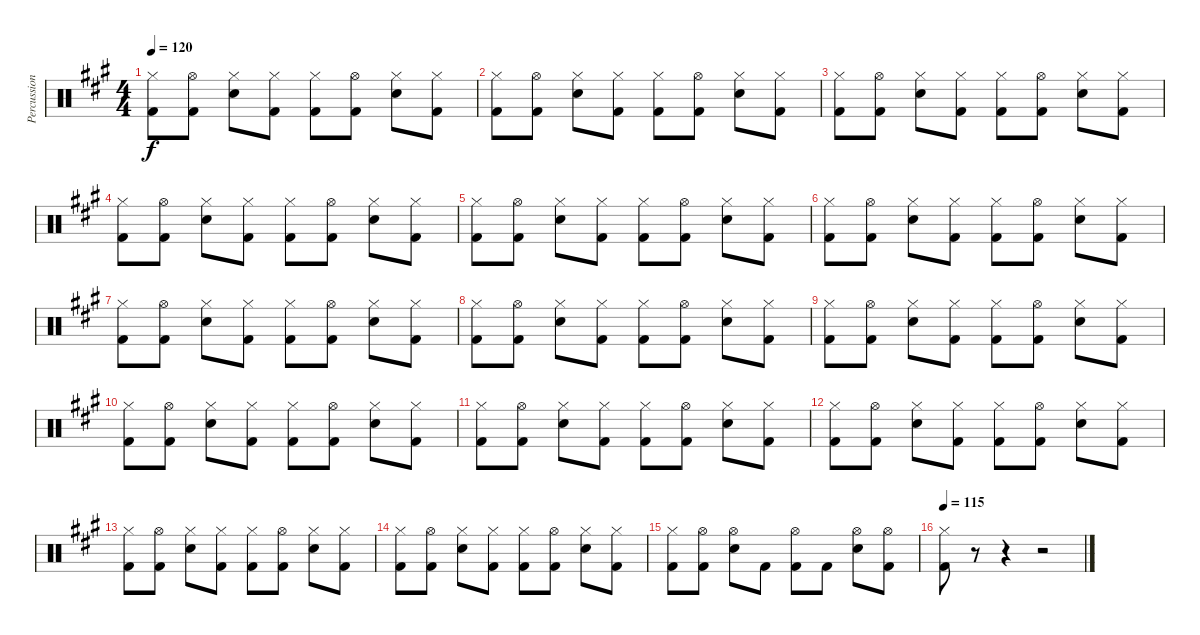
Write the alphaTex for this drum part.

\track ("Percussion" "Percussion") {instrument percussion}
\staff {score}
\articulation defaults
\ts (4 4)
\tempo 120
\clef neutral
\ks a
("Hi-Hat (closed)" "Kick (hit) 2").8{dy f} ("Hi-Hat (open)" "Kick (hit) 2").8 ("Hi-Hat (closed)" "Snare (hit) 2").8 ("Hi-Hat (closed)" "Kick (hit) 2").8 ("Hi-Hat (closed)" "Kick (hit) 2").8 ("Hi-Hat (open)" "Kick (hit) 2").8 ("Hi-Hat (closed)" "Snare (hit) 2").8 ("Hi-Hat (closed)" "Kick (hit) 2").8 |
("Hi-Hat (closed)" "Kick (hit) 2").8 ("Hi-Hat (open)" "Kick (hit) 2").8 ("Hi-Hat (closed)" "Snare (hit) 2").8 ("Hi-Hat (closed)" "Kick (hit) 2").8 ("Hi-Hat (closed)" "Kick (hit) 2").8 ("Hi-Hat (open)" "Kick (hit) 2").8 ("Hi-Hat (closed)" "Snare (hit) 2").8 ("Hi-Hat (closed)" "Kick (hit) 2").8 |
("Hi-Hat (closed)" "Kick (hit) 2").8 ("Hi-Hat (open)" "Kick (hit) 2").8 ("Hi-Hat (closed)" "Snare (hit) 2").8 ("Hi-Hat (closed)" "Kick (hit) 2").8 ("Hi-Hat (closed)" "Kick (hit) 2").8 ("Hi-Hat (open)" "Kick (hit) 2").8 ("Hi-Hat (closed)" "Snare (hit) 2").8 ("Hi-Hat (closed)" "Kick (hit) 2").8 |
("Hi-Hat (closed)" "Kick (hit) 2").8 ("Hi-Hat (open)" "Kick (hit) 2").8 ("Hi-Hat (closed)" "Snare (hit) 2").8 ("Hi-Hat (closed)" "Kick (hit) 2").8 ("Hi-Hat (closed)" "Kick (hit) 2").8 ("Hi-Hat (open)" "Kick (hit) 2").8 ("Hi-Hat (closed)" "Snare (hit) 2").8 ("Hi-Hat (closed)" "Kick (hit) 2").8 |
("Hi-Hat (closed)" "Kick (hit) 2").8 ("Hi-Hat (open)" "Kick (hit) 2").8 ("Hi-Hat (closed)" "Snare (hit) 2").8 ("Hi-Hat (closed)" "Kick (hit) 2").8 ("Hi-Hat (closed)" "Kick (hit) 2").8 ("Hi-Hat (open)" "Kick (hit) 2").8 ("Hi-Hat (closed)" "Snare (hit) 2").8 ("Hi-Hat (closed)" "Kick (hit) 2").8 |
("Hi-Hat (closed)" "Kick (hit) 2").8 ("Hi-Hat (open)" "Kick (hit) 2").8 ("Hi-Hat (closed)" "Snare (hit) 2").8 ("Hi-Hat (closed)" "Kick (hit) 2").8 ("Hi-Hat (closed)" "Kick (hit) 2").8 ("Hi-Hat (open)" "Kick (hit) 2").8 ("Hi-Hat (closed)" "Snare (hit) 2").8 ("Hi-Hat (closed)" "Kick (hit) 2").8 |
("Hi-Hat (closed)" "Kick (hit) 2").8 ("Hi-Hat (open)" "Kick (hit) 2").8 ("Hi-Hat (closed)" "Snare (hit) 2").8 ("Hi-Hat (closed)" "Kick (hit) 2").8 ("Hi-Hat (closed)" "Kick (hit) 2").8 ("Hi-Hat (open)" "Kick (hit) 2").8 ("Hi-Hat (closed)" "Snare (hit) 2").8 ("Hi-Hat (closed)" "Kick (hit) 2").8 |
("Hi-Hat (closed)" "Kick (hit) 2").8 ("Hi-Hat (open)" "Kick (hit) 2").8 ("Hi-Hat (closed)" "Snare (hit) 2").8 ("Hi-Hat (closed)" "Kick (hit) 2").8 ("Hi-Hat (closed)" "Kick (hit) 2").8 ("Hi-Hat (open)" "Kick (hit) 2").8 ("Hi-Hat (closed)" "Snare (hit) 2").8 ("Hi-Hat (closed)" "Kick (hit) 2").8 |
("Hi-Hat (closed)" "Kick (hit) 2").8 ("Hi-Hat (open)" "Kick (hit) 2").8 ("Hi-Hat (closed)" "Snare (hit) 2").8 ("Hi-Hat (closed)" "Kick (hit) 2").8 ("Hi-Hat (closed)" "Kick (hit) 2").8 ("Hi-Hat (open)" "Kick (hit) 2").8 ("Hi-Hat (closed)" "Snare (hit) 2").8 ("Hi-Hat (closed)" "Kick (hit) 2").8 |
("Hi-Hat (closed)" "Kick (hit) 2").8 ("Hi-Hat (open)" "Kick (hit) 2").8 ("Hi-Hat (closed)" "Snare (hit) 2").8 ("Hi-Hat (closed)" "Kick (hit) 2").8 ("Hi-Hat (closed)" "Kick (hit) 2").8 ("Hi-Hat (open)" "Kick (hit) 2").8 ("Hi-Hat (closed)" "Snare (hit) 2").8 ("Hi-Hat (closed)" "Kick (hit) 2").8 |
("Hi-Hat (closed)" "Kick (hit) 2").8 ("Hi-Hat (open)" "Kick (hit) 2").8 ("Hi-Hat (closed)" "Snare (hit) 2").8 ("Hi-Hat (closed)" "Kick (hit) 2").8 ("Hi-Hat (closed)" "Kick (hit) 2").8 ("Hi-Hat (open)" "Kick (hit) 2").8 ("Hi-Hat (closed)" "Snare (hit) 2").8 ("Hi-Hat (closed)" "Kick (hit) 2").8 |
("Hi-Hat (closed)" "Kick (hit) 2").8 ("Hi-Hat (open)" "Kick (hit) 2").8 ("Hi-Hat (closed)" "Snare (hit) 2").8 ("Hi-Hat (closed)" "Kick (hit) 2").8 ("Hi-Hat (closed)" "Kick (hit) 2").8 ("Hi-Hat (open)" "Kick (hit) 2").8 ("Hi-Hat (closed)" "Snare (hit) 2").8 ("Hi-Hat (closed)" "Kick (hit) 2").8 |
("Hi-Hat (closed)" "Kick (hit) 2").8 ("Hi-Hat (open)" "Kick (hit) 2").8 ("Hi-Hat (closed)" "Snare (hit) 2").8 ("Hi-Hat (closed)" "Kick (hit) 2").8 ("Hi-Hat (closed)" "Kick (hit) 2").8 ("Hi-Hat (open)" "Kick (hit) 2").8 ("Hi-Hat (closed)" "Snare (hit) 2").8 ("Hi-Hat (closed)" "Kick (hit) 2").8 |
("Hi-Hat (closed)" "Kick (hit) 2").8 ("Hi-Hat (open)" "Kick (hit) 2").8 ("Hi-Hat (closed)" "Snare (hit) 2").8 ("Hi-Hat (closed)" "Kick (hit) 2").8 ("Hi-Hat (closed)" "Kick (hit) 2").8 ("Hi-Hat (open)" "Kick (hit) 2").8 ("Hi-Hat (closed)" "Snare (hit) 2").8 ("Hi-Hat (closed)" "Kick (hit) 2").8 |
("Hi-Hat (closed)" "Kick (hit) 2").8 ("Hi-Hat (open)" "Kick (hit) 2").8 ("Hi-Hat (open)" "Snare (hit) 2").8 "Kick (hit) 2".8 ("Hi-Hat (open)" "Kick (hit) 2").8 "Kick (hit) 2".8 ("Hi-Hat (open)" "Snare (hit) 2").8 ("Hi-Hat (open)" "Kick (hit) 2").8 |
\tempo 115
("Hi-Hat (closed)" "Kick (hit) 2").8 r.8 r.4 r.2
